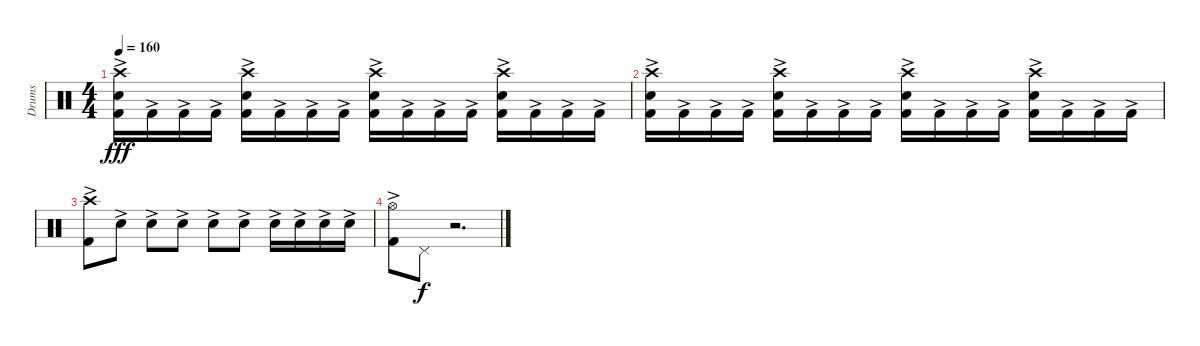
\track ("Drums" "Drums") {instrument percussion}
\staff {score}
\articulation defaults
\ts (4 4)
\tempo 160
\clef neutral
\ks c
("Crash high (hit)" "Snare (hit) 2"{ac} "Kick (hit) 2"{ac}).16{dy fff} "Kick (hit) 2"{ac}.16 "Kick (hit) 2"{ac}.16 "Kick (hit) 2"{ac}.16 ("Crash high (hit)" "Snare (hit) 2"{ac} "Kick (hit) 2"{ac}).16 "Kick (hit) 2"{ac}.16 "Kick (hit) 2"{ac}.16 "Kick (hit) 2"{ac}.16 ("Crash high (hit)" "Snare (hit) 2"{ac} "Kick (hit) 2"{ac}).16 "Kick (hit) 2"{ac}.16 "Kick (hit) 2"{ac}.16 "Kick (hit) 2"{ac}.16 ("Crash high (hit)" "Snare (hit) 2"{ac} "Kick (hit) 2"{ac}).16 "Kick (hit) 2"{ac}.16 "Kick (hit) 2"{ac}.16 "Kick (hit) 2"{ac}.16 |
("Crash high (hit)" "Snare (hit) 2"{ac} "Kick (hit) 2"{ac}).16 "Kick (hit) 2"{ac}.16 "Kick (hit) 2"{ac}.16 "Kick (hit) 2"{ac}.16 ("Crash high (hit)" "Snare (hit) 2"{ac} "Kick (hit) 2"{ac}).16 "Kick (hit) 2"{ac}.16 "Kick (hit) 2"{ac}.16 "Kick (hit) 2"{ac}.16 ("Crash high (hit)" "Snare (hit) 2"{ac} "Kick (hit) 2"{ac}).16 "Kick (hit) 2"{ac}.16 "Kick (hit) 2"{ac}.16 "Kick (hit) 2"{ac}.16 ("Crash high (hit)" "Snare (hit) 2"{ac} "Kick (hit) 2"{ac}).16 "Kick (hit) 2"{ac}.16 "Kick (hit) 2"{ac}.16 "Kick (hit) 2"{ac}.16 |
("Crash high (hit)" "Kick (hit) 2"{ac}).8 "Snare (hit) 2"{ac}.8 "Snare (hit) 2"{ac}.8 "Snare (hit) 2"{ac}.8 "Snare (hit) 2"{ac}.8 "Snare (hit) 2"{ac}.8 "Snare (hit) 2"{ac}.16 "Snare (hit) 2"{ac}.16 "Snare (hit) 2"{ac}.16 "Snare (hit) 2"{ac}.16 |
("Hi-Hat (open)" "Kick (hit) 2"{ac}).8 "Pedal Hi-Hat (hit)".8{dy f} r.2{d}
